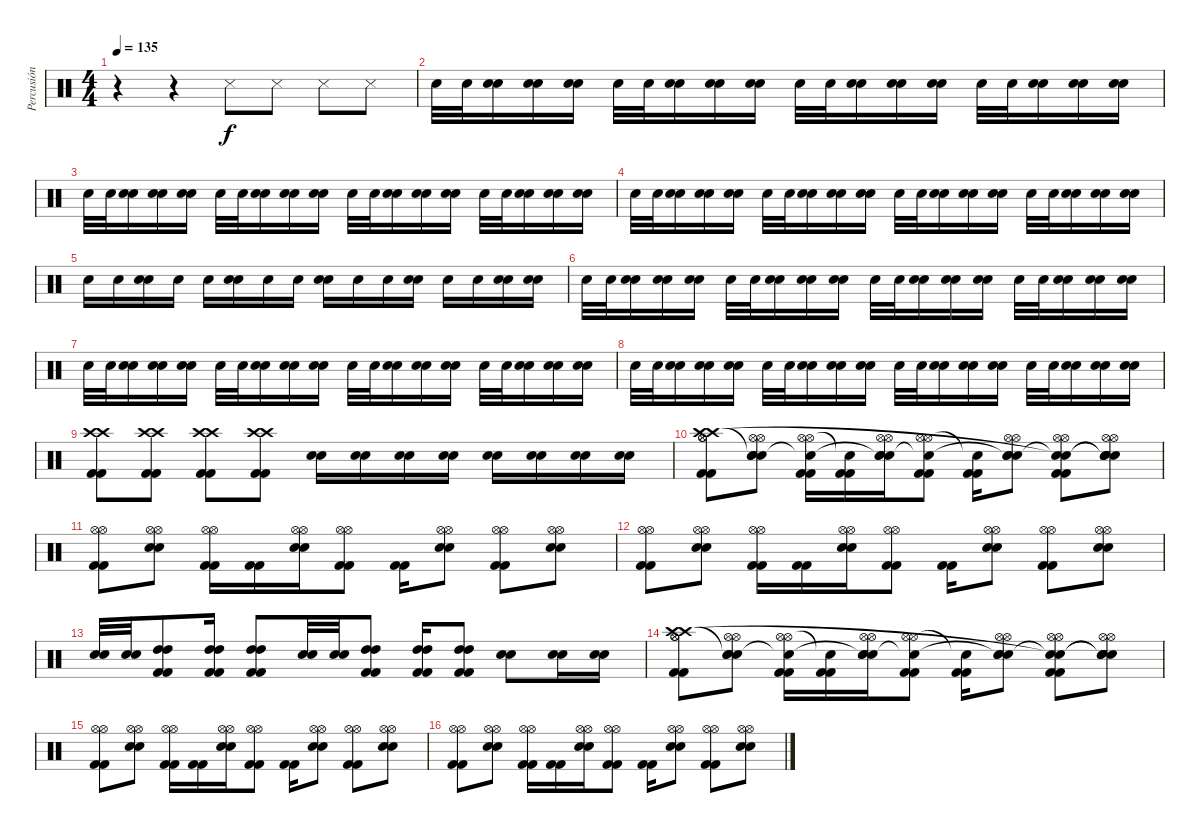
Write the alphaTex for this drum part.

\track ("Percusión" "Percusión") {instrument percussion}
\staff {score}
\articulation defaults
\ts (4 4)
\tempo 135
\clef neutral
\ks c
r.4{dy f} r.4 "Snare (side stick) 3".8 "Snare (side stick) 3".8 "Snare (side stick) 3".8 "Snare (side stick) 3".8 |
"Snare (hit) 2".32 "Snare (hit) 2".32 ("Snare (hit) 2" "Snare (hit) 2").16 ("Snare (hit) 2" "Snare (hit) 2").16 ("Snare (hit) 2" "Snare (hit) 2").16 "Snare (hit) 2".32 "Snare (hit) 2".32 ("Snare (hit) 2" "Snare (hit) 2").16 ("Snare (hit) 2" "Snare (hit) 2").16 ("Snare (hit) 2" "Snare (hit) 2").16 "Snare (hit) 2".32 "Snare (hit) 2".32 ("Snare (hit) 2" "Snare (hit) 2").16 ("Snare (hit) 2" "Snare (hit) 2").16 ("Snare (hit) 2" "Snare (hit) 2").16 "Snare (hit) 2".32 "Snare (hit) 2".32 ("Snare (hit) 2" "Snare (hit) 2").16 ("Snare (hit) 2" "Snare (hit) 2").16 ("Snare (hit) 2" "Snare (hit) 2").16 |
"Snare (hit) 2".32 "Snare (hit) 2".32 ("Snare (hit) 2" "Snare (hit) 2").16 ("Snare (hit) 2" "Snare (hit) 2").16 ("Snare (hit) 2" "Snare (hit) 2").16 "Snare (hit) 2".32 "Snare (hit) 2".32 ("Snare (hit) 2" "Snare (hit) 2").16 ("Snare (hit) 2" "Snare (hit) 2").16 ("Snare (hit) 2" "Snare (hit) 2").16 "Snare (hit) 2".32 "Snare (hit) 2".32 ("Snare (hit) 2" "Snare (hit) 2").16 ("Snare (hit) 2" "Snare (hit) 2").16 ("Snare (hit) 2" "Snare (hit) 2").16 "Snare (hit) 2".32 "Snare (hit) 2".32 ("Snare (hit) 2" "Snare (hit) 2").16 ("Snare (hit) 2" "Snare (hit) 2").16 ("Snare (hit) 2" "Snare (hit) 2").16 |
"Snare (hit) 2".32 "Snare (hit) 2".32 ("Snare (hit) 2" "Snare (hit) 2").16 ("Snare (hit) 2" "Snare (hit) 2").16 ("Snare (hit) 2" "Snare (hit) 2").16 "Snare (hit) 2".32 "Snare (hit) 2".32 ("Snare (hit) 2" "Snare (hit) 2").16 ("Snare (hit) 2" "Snare (hit) 2").16 ("Snare (hit) 2" "Snare (hit) 2").16 "Snare (hit) 2".32 "Snare (hit) 2".32 ("Snare (hit) 2" "Snare (hit) 2").16 ("Snare (hit) 2" "Snare (hit) 2").16 ("Snare (hit) 2" "Snare (hit) 2").16 "Snare (hit) 2".32 "Snare (hit) 2".32 ("Snare (hit) 2" "Snare (hit) 2").16 ("Snare (hit) 2" "Snare (hit) 2").16 ("Snare (hit) 2" "Snare (hit) 2").16 |
"Snare (hit) 2".16 "Snare (hit) 2".16 ("Snare (hit) 2" "Snare (hit) 2").16 "Snare (hit) 2".16 "Snare (hit) 2".16 ("Snare (hit) 2" "Snare (hit) 2").16 "Snare (hit) 2".16 "Snare (hit) 2".16 ("Snare (hit) 2" "Snare (hit) 2").16 "Snare (hit) 2".16 "Snare (hit) 2".16 ("Snare (hit) 2" "Snare (hit) 2").16 "Snare (hit) 2".16 "Snare (hit) 2".16 ("Snare (hit) 2" "Snare (hit) 2").16 ("Snare (hit) 2" "Snare (hit) 2").16 |
"Snare (hit) 2".32 "Snare (hit) 2".32 ("Snare (hit) 2" "Snare (hit) 2").16 ("Snare (hit) 2" "Snare (hit) 2").16 ("Snare (hit) 2" "Snare (hit) 2").16 "Snare (hit) 2".32 "Snare (hit) 2".32 ("Snare (hit) 2" "Snare (hit) 2").16 ("Snare (hit) 2" "Snare (hit) 2").16 ("Snare (hit) 2" "Snare (hit) 2").16 "Snare (hit) 2".32 "Snare (hit) 2".32 ("Snare (hit) 2" "Snare (hit) 2").16 ("Snare (hit) 2" "Snare (hit) 2").16 ("Snare (hit) 2" "Snare (hit) 2").16 "Snare (hit) 2".32 "Snare (hit) 2".32 ("Snare (hit) 2" "Snare (hit) 2").16 ("Snare (hit) 2" "Snare (hit) 2").16 ("Snare (hit) 2" "Snare (hit) 2").16 |
"Snare (hit) 2".32 "Snare (hit) 2".32 ("Snare (hit) 2" "Snare (hit) 2").16 ("Snare (hit) 2" "Snare (hit) 2").16 ("Snare (hit) 2" "Snare (hit) 2").16 "Snare (hit) 2".32 "Snare (hit) 2".32 ("Snare (hit) 2" "Snare (hit) 2").16 ("Snare (hit) 2" "Snare (hit) 2").16 ("Snare (hit) 2" "Snare (hit) 2").16 "Snare (hit) 2".32 "Snare (hit) 2".32 ("Snare (hit) 2" "Snare (hit) 2").16 ("Snare (hit) 2" "Snare (hit) 2").16 ("Snare (hit) 2" "Snare (hit) 2").16 "Snare (hit) 2".32 "Snare (hit) 2".32 ("Snare (hit) 2" "Snare (hit) 2").16 ("Snare (hit) 2" "Snare (hit) 2").16 ("Snare (hit) 2" "Snare (hit) 2").16 |
"Snare (hit) 2".32 "Snare (hit) 2".32 ("Snare (hit) 2" "Snare (hit) 2").16 ("Snare (hit) 2" "Snare (hit) 2").16 ("Snare (hit) 2" "Snare (hit) 2").16 "Snare (hit) 2".32 "Snare (hit) 2".32 ("Snare (hit) 2" "Snare (hit) 2").16 ("Snare (hit) 2" "Snare (hit) 2").16 ("Snare (hit) 2" "Snare (hit) 2").16 "Snare (hit) 2".32 "Snare (hit) 2".32 ("Snare (hit) 2" "Snare (hit) 2").16 ("Snare (hit) 2" "Snare (hit) 2").16 ("Snare (hit) 2" "Snare (hit) 2").16 "Snare (hit) 2".32 "Snare (hit) 2".32 ("Snare (hit) 2" "Snare (hit) 2").16 ("Snare (hit) 2" "Snare (hit) 2").16 ("Snare (hit) 2" "Snare (hit) 2").16 |
("Crash high (hit)" "Crash high (hit)" "Kick (hit) 2" "Kick (hit) 2").8 ("Crash high (hit)" "Crash high (hit)" "Kick (hit) 2" "Kick (hit) 2").8 ("Crash high (hit)" "Crash high (hit)" "Kick (hit) 2" "Kick (hit) 2").8 ("Crash high (hit)" "Crash high (hit)" "Kick (hit) 2" "Kick (hit) 2").8 ("Snare (hit) 2" "Snare (hit) 2").16 ("Snare (hit) 2" "Snare (hit) 2").16 ("Snare (hit) 2" "Snare (hit) 2").16 ("Snare (hit) 2" "Snare (hit) 2").16 ("Snare (hit) 2" "Snare (hit) 2").16 ("Snare (hit) 2" "Snare (hit) 2").16 ("Snare (hit) 2" "Snare (hit) 2").16 ("Snare (hit) 2" "Snare (hit) 2").16 |
("Kick (hit) 2" "Kick (hit) 2" "Hi-Hat (open)" "Hi-Hat (open)" "Crash high (hit)" "Crash high (hit)").8 ("Snare (hit) 2" "Snare (hit) 2" "Hi-Hat (open)" "Hi-Hat (open)" "Snare (hit)"{t}).8 ("Kick (hit) 2" "Kick (hit) 2" "Hi-Hat (open)" "Hi-Hat (open)" "Snare (hit)"{t}).16 ("Kick (hit) 2" "Kick (hit) 2" "Snare (hit)"{t}).16 ("Snare (hit) 2" "Snare (hit) 2" "Hi-Hat (open)" "Hi-Hat (open)" "Snare (hit)"{t}).16 ("Kick (hit) 2" "Kick (hit) 2" "Hi-Hat (open)" "Hi-Hat (open)" "Snare (hit)"{t}).8 ("Kick (hit) 2" "Kick (hit) 2" "Snare (hit)"{t}).16 ("Snare (hit) 2" "Snare (hit) 2" "Hi-Hat (open)" "Hi-Hat (open)" "Snare (hit)"{t}).8 ("Kick (hit) 2" "Kick (hit) 2" "Hi-Hat (open)" "Hi-Hat (open)" "Snare (hit)"{t} "Snare (hit)"{t}).8 ("Snare (hit) 2" "Snare (hit) 2" "Hi-Hat (open)" "Hi-Hat (open)" "Snare (hit)"{t} "Snare (hit)"{t}).8 |
("Kick (hit) 2" "Kick (hit) 2" "Hi-Hat (open)" "Hi-Hat (open)").8 ("Snare (hit) 2" "Snare (hit) 2" "Hi-Hat (open)" "Hi-Hat (open)").8 ("Kick (hit) 2" "Kick (hit) 2" "Hi-Hat (open)" "Hi-Hat (open)").16 ("Kick (hit) 2" "Kick (hit) 2").16 ("Snare (hit) 2" "Snare (hit) 2" "Hi-Hat (open)" "Hi-Hat (open)").16 ("Kick (hit) 2" "Kick (hit) 2" "Hi-Hat (open)" "Hi-Hat (open)").8 ("Kick (hit) 2" "Kick (hit) 2").16 ("Snare (hit) 2" "Snare (hit) 2" "Hi-Hat (open)" "Hi-Hat (open)").8 ("Kick (hit) 2" "Kick (hit) 2" "Hi-Hat (open)" "Hi-Hat (open)").8 ("Snare (hit) 2" "Snare (hit) 2" "Hi-Hat (open)" "Hi-Hat (open)").8 |
("Kick (hit) 2" "Kick (hit) 2" "Hi-Hat (open)" "Hi-Hat (open)").8 ("Snare (hit) 2" "Snare (hit) 2" "Hi-Hat (open)" "Hi-Hat (open)").8 ("Kick (hit) 2" "Kick (hit) 2" "Hi-Hat (open)" "Hi-Hat (open)").16 ("Kick (hit) 2" "Kick (hit) 2").16 ("Snare (hit) 2" "Snare (hit) 2" "Hi-Hat (open)" "Hi-Hat (open)").16 ("Kick (hit) 2" "Kick (hit) 2" "Hi-Hat (open)" "Hi-Hat (open)").8 ("Kick (hit) 2" "Kick (hit) 2").16 ("Snare (hit) 2" "Snare (hit) 2" "Hi-Hat (open)" "Hi-Hat (open)").8 ("Kick (hit) 2" "Kick (hit) 2" "Hi-Hat (open)" "Hi-Hat (open)").8 ("Snare (hit) 2" "Snare (hit) 2" "Hi-Hat (open)" "Hi-Hat (open)").8 |
("Snare (hit) 2" "Snare (hit) 2").32 ("Snare (hit) 2" "Snare (hit) 2").32 ("Kick (hit) 2" "Kick (hit) 2" "High Tom (hit)" "High Tom (hit)").8 ("Kick (hit) 2" "Kick (hit) 2" "High Tom (hit)" "High Tom (hit)").16 ("Kick (hit) 2" "Kick (hit) 2" "High Tom (hit)" "High Tom (hit)").8 ("Snare (hit) 2" "Snare (hit) 2").32 ("Snare (hit) 2" "Snare (hit) 2").32 ("Kick (hit) 2" "Kick (hit) 2" "High Tom (hit)" "High Tom (hit)").8 ("Kick (hit) 2" "Kick (hit) 2" "High Tom (hit)" "High Tom (hit)").16 ("Kick (hit) 2" "Kick (hit) 2" "High Tom (hit)" "High Tom (hit)").8 ("Snare (hit) 2" "Snare (hit) 2").8 ("Snare (hit) 2" "Snare (hit) 2").16 ("Snare (hit) 2" "Snare (hit) 2").16 |
("Kick (hit) 2" "Kick (hit) 2" "Hi-Hat (open)" "Hi-Hat (open)" "Crash high (hit)" "Crash high (hit)").8 ("Snare (hit) 2" "Snare (hit) 2" "Hi-Hat (open)" "Hi-Hat (open)" "Snare (hit)"{t}).8 ("Kick (hit) 2" "Kick (hit) 2" "Hi-Hat (open)" "Hi-Hat (open)" "Snare (hit)"{t}).16 ("Kick (hit) 2" "Kick (hit) 2" "Snare (hit)"{t}).16 ("Snare (hit) 2" "Snare (hit) 2" "Hi-Hat (open)" "Hi-Hat (open)" "Snare (hit)"{t}).16 ("Kick (hit) 2" "Kick (hit) 2" "Hi-Hat (open)" "Hi-Hat (open)" "Snare (hit)"{t}).8 ("Kick (hit) 2" "Kick (hit) 2" "Snare (hit)"{t}).16 ("Snare (hit) 2" "Snare (hit) 2" "Hi-Hat (open)" "Hi-Hat (open)" "Snare (hit)"{t}).8 ("Kick (hit) 2" "Kick (hit) 2" "Hi-Hat (open)" "Hi-Hat (open)" "Snare (hit)"{t} "Snare (hit)"{t}).8 ("Snare (hit) 2" "Snare (hit) 2" "Hi-Hat (open)" "Hi-Hat (open)" "Snare (hit)"{t} "Snare (hit)"{t}).8 |
("Kick (hit) 2" "Kick (hit) 2" "Hi-Hat (open)" "Hi-Hat (open)").8 ("Snare (hit) 2" "Snare (hit) 2" "Hi-Hat (open)" "Hi-Hat (open)").8 ("Kick (hit) 2" "Kick (hit) 2" "Hi-Hat (open)" "Hi-Hat (open)").16 ("Kick (hit) 2" "Kick (hit) 2").16 ("Snare (hit) 2" "Snare (hit) 2" "Hi-Hat (open)" "Hi-Hat (open)").16 ("Kick (hit) 2" "Kick (hit) 2" "Hi-Hat (open)" "Hi-Hat (open)").8 ("Kick (hit) 2" "Kick (hit) 2").16 ("Snare (hit) 2" "Snare (hit) 2" "Hi-Hat (open)" "Hi-Hat (open)").8 ("Kick (hit) 2" "Kick (hit) 2" "Hi-Hat (open)" "Hi-Hat (open)").8 ("Snare (hit) 2" "Snare (hit) 2" "Hi-Hat (open)" "Hi-Hat (open)").8 |
("Kick (hit) 2" "Kick (hit) 2" "Hi-Hat (open)" "Hi-Hat (open)").8 ("Snare (hit) 2" "Snare (hit) 2" "Hi-Hat (open)" "Hi-Hat (open)").8 ("Kick (hit) 2" "Kick (hit) 2" "Hi-Hat (open)" "Hi-Hat (open)").16 ("Kick (hit) 2" "Kick (hit) 2").16 ("Snare (hit) 2" "Snare (hit) 2" "Hi-Hat (open)" "Hi-Hat (open)").16 ("Kick (hit) 2" "Kick (hit) 2" "Hi-Hat (open)" "Hi-Hat (open)").8 ("Kick (hit) 2" "Kick (hit) 2").16 ("Snare (hit) 2" "Snare (hit) 2" "Hi-Hat (open)" "Hi-Hat (open)").8 ("Kick (hit) 2" "Kick (hit) 2" "Hi-Hat (open)" "Hi-Hat (open)").8 ("Snare (hit) 2" "Snare (hit) 2" "Hi-Hat (open)" "Hi-Hat (open)").8
